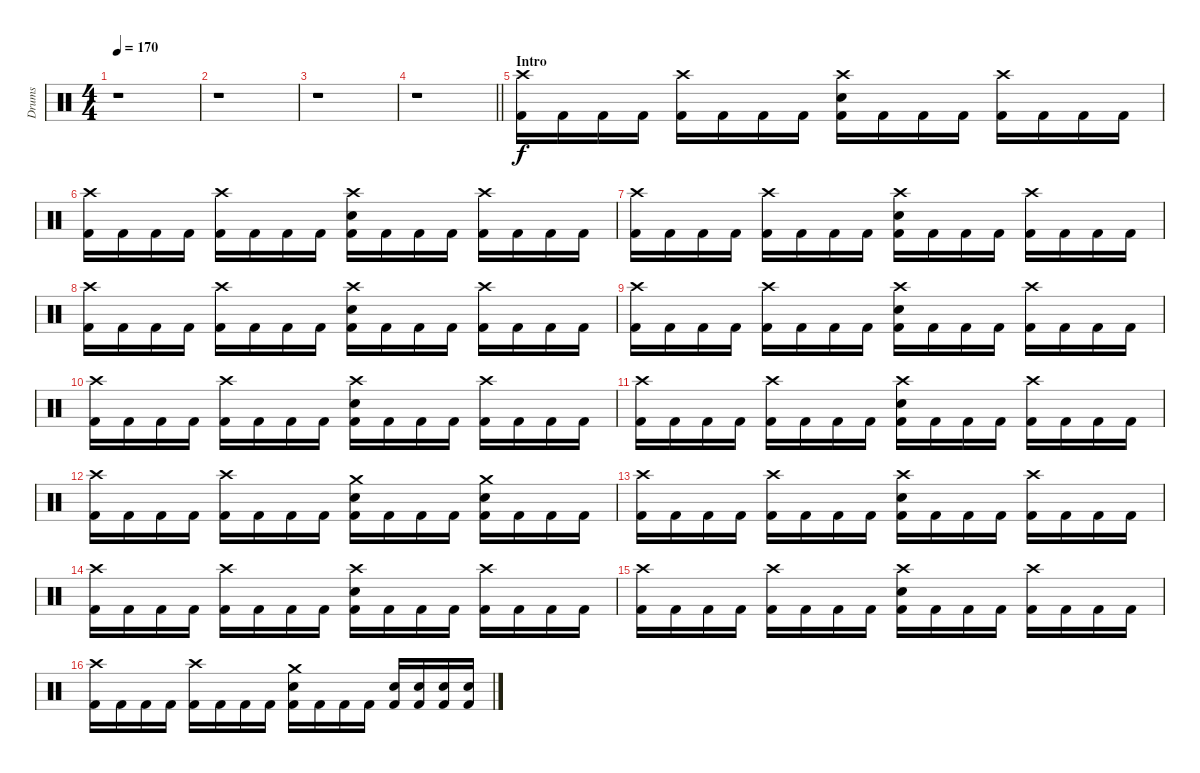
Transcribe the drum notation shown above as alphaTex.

\track ("Drums" "Drums") {instrument percussion}
\staff {score}
\articulation defaults
\ts (4 4)
\tempo 170
\clef neutral
\ks c
r.1{dy f} |
r.1 |
r.1 |
\barLineRight lightlight
r.1 |
\section ("" "Intro")
("Crash high (hit)" "Kick (hit) 2").16 "Kick (hit) 2".16 "Kick (hit) 2".16 "Kick (hit) 2".16 ("Crash high (hit)" "Kick (hit) 2").16 "Kick (hit) 2".16 "Kick (hit) 2".16 "Kick (hit) 2".16 ("Crash high (hit)" "Electric Snare (hit)" "Kick (hit) 2").16 "Kick (hit) 2".16 "Kick (hit) 2".16 "Kick (hit) 2".16 ("Crash high (hit)" "Kick (hit) 2").16 "Kick (hit) 2".16 "Kick (hit) 2".16 "Kick (hit) 2".16 |
("Crash high (hit)" "Kick (hit) 2").16 "Kick (hit) 2".16 "Kick (hit) 2".16 "Kick (hit) 2".16 ("Crash high (hit)" "Kick (hit) 2").16 "Kick (hit) 2".16 "Kick (hit) 2".16 "Kick (hit) 2".16 ("Crash high (hit)" "Electric Snare (hit)" "Kick (hit) 2").16 "Kick (hit) 2".16 "Kick (hit) 2".16 "Kick (hit) 2".16 ("Crash high (hit)" "Kick (hit) 2").16 "Kick (hit) 2".16 "Kick (hit) 2".16 "Kick (hit) 2".16 |
("Crash high (hit)" "Kick (hit) 2").16 "Kick (hit) 2".16 "Kick (hit) 2".16 "Kick (hit) 2".16 ("Crash high (hit)" "Kick (hit) 2").16 "Kick (hit) 2".16 "Kick (hit) 2".16 "Kick (hit) 2".16 ("Crash high (hit)" "Electric Snare (hit)" "Kick (hit) 2").16 "Kick (hit) 2".16 "Kick (hit) 2".16 "Kick (hit) 2".16 ("Crash high (hit)" "Kick (hit) 2").16 "Kick (hit) 2".16 "Kick (hit) 2".16 "Kick (hit) 2".16 |
("Crash high (hit)" "Kick (hit) 2").16 "Kick (hit) 2".16 "Kick (hit) 2".16 "Kick (hit) 2".16 ("Crash high (hit)" "Kick (hit) 2").16 "Kick (hit) 2".16 "Kick (hit) 2".16 "Kick (hit) 2".16 ("Crash high (hit)" "Electric Snare (hit)" "Kick (hit) 2").16 "Kick (hit) 2".16 "Kick (hit) 2".16 "Kick (hit) 2".16 ("Crash high (hit)" "Kick (hit) 2").16 "Kick (hit) 2".16 "Kick (hit) 2".16 "Kick (hit) 2".16 |
("Crash high (hit)" "Kick (hit) 2").16 "Kick (hit) 2".16 "Kick (hit) 2".16 "Kick (hit) 2".16 ("Crash high (hit)" "Kick (hit) 2").16 "Kick (hit) 2".16 "Kick (hit) 2".16 "Kick (hit) 2".16 ("Crash high (hit)" "Electric Snare (hit)" "Kick (hit) 2").16 "Kick (hit) 2".16 "Kick (hit) 2".16 "Kick (hit) 2".16 ("Crash high (hit)" "Kick (hit) 2").16 "Kick (hit) 2".16 "Kick (hit) 2".16 "Kick (hit) 2".16 |
("Crash high (hit)" "Kick (hit) 2").16 "Kick (hit) 2".16 "Kick (hit) 2".16 "Kick (hit) 2".16 ("Crash high (hit)" "Kick (hit) 2").16 "Kick (hit) 2".16 "Kick (hit) 2".16 "Kick (hit) 2".16 ("Crash high (hit)" "Electric Snare (hit)" "Kick (hit) 2").16 "Kick (hit) 2".16 "Kick (hit) 2".16 "Kick (hit) 2".16 ("Crash high (hit)" "Kick (hit) 2").16 "Kick (hit) 2".16 "Kick (hit) 2".16 "Kick (hit) 2".16 |
("Crash high (hit)" "Kick (hit) 2").16 "Kick (hit) 2".16 "Kick (hit) 2".16 "Kick (hit) 2".16 ("Crash high (hit)" "Kick (hit) 2").16 "Kick (hit) 2".16 "Kick (hit) 2".16 "Kick (hit) 2".16 ("Crash high (hit)" "Electric Snare (hit)" "Kick (hit) 2").16 "Kick (hit) 2".16 "Kick (hit) 2".16 "Kick (hit) 2".16 ("Crash high (hit)" "Kick (hit) 2").16 "Kick (hit) 2".16 "Kick (hit) 2".16 "Kick (hit) 2".16 |
("Crash high (hit)" "Kick (hit) 2").16 "Kick (hit) 2".16 "Kick (hit) 2".16 "Kick (hit) 2".16 ("Crash high (hit)" "Kick (hit) 2").16 "Kick (hit) 2".16 "Kick (hit) 2".16 "Kick (hit) 2".16 ("Crash medium (hit)" "Electric Snare (hit)" "Kick (hit) 2").16 "Kick (hit) 2".16 "Kick (hit) 2".16 "Kick (hit) 2".16 ("Crash medium (hit)" "Electric Snare (hit)" "Kick (hit) 2").16 "Kick (hit) 2".16 "Kick (hit) 2".16 "Kick (hit) 2".16 |
("Crash high (hit)" "Kick (hit) 2").16 "Kick (hit) 2".16 "Kick (hit) 2".16 "Kick (hit) 2".16 ("Crash high (hit)" "Kick (hit) 2").16 "Kick (hit) 2".16 "Kick (hit) 2".16 "Kick (hit) 2".16 ("Crash high (hit)" "Electric Snare (hit)" "Kick (hit) 2").16 "Kick (hit) 2".16 "Kick (hit) 2".16 "Kick (hit) 2".16 ("Crash high (hit)" "Kick (hit) 2").16 "Kick (hit) 2".16 "Kick (hit) 2".16 "Kick (hit) 2".16 |
("Crash high (hit)" "Kick (hit) 2").16 "Kick (hit) 2".16 "Kick (hit) 2".16 "Kick (hit) 2".16 ("Crash high (hit)" "Kick (hit) 2").16 "Kick (hit) 2".16 "Kick (hit) 2".16 "Kick (hit) 2".16 ("Crash high (hit)" "Electric Snare (hit)" "Kick (hit) 2").16 "Kick (hit) 2".16 "Kick (hit) 2".16 "Kick (hit) 2".16 ("Crash high (hit)" "Kick (hit) 2").16 "Kick (hit) 2".16 "Kick (hit) 2".16 "Kick (hit) 2".16 |
("Crash high (hit)" "Kick (hit) 2").16 "Kick (hit) 2".16 "Kick (hit) 2".16 "Kick (hit) 2".16 ("Crash high (hit)" "Kick (hit) 2").16 "Kick (hit) 2".16 "Kick (hit) 2".16 "Kick (hit) 2".16 ("Crash high (hit)" "Electric Snare (hit)" "Kick (hit) 2").16 "Kick (hit) 2".16 "Kick (hit) 2".16 "Kick (hit) 2".16 ("Crash high (hit)" "Kick (hit) 2").16 "Kick (hit) 2".16 "Kick (hit) 2".16 "Kick (hit) 2".16 |
("Crash high (hit)" "Kick (hit) 2").16 "Kick (hit) 2".16 "Kick (hit) 2".16 "Kick (hit) 2".16 ("Crash high (hit)" "Kick (hit) 2").16 "Kick (hit) 2".16 "Kick (hit) 2".16 "Kick (hit) 2".16 ("Crash medium (hit)" "Electric Snare (hit)" "Kick (hit) 2").16 "Kick (hit) 2".16 "Kick (hit) 2".16 "Kick (hit) 2".16 ("Electric Snare (hit)" "Kick (hit) 2").16 ("Electric Snare (hit)" "Kick (hit) 2").16 ("Electric Snare (hit)" "Kick (hit) 2").16 ("Electric Snare (hit)" "Kick (hit) 2").16
